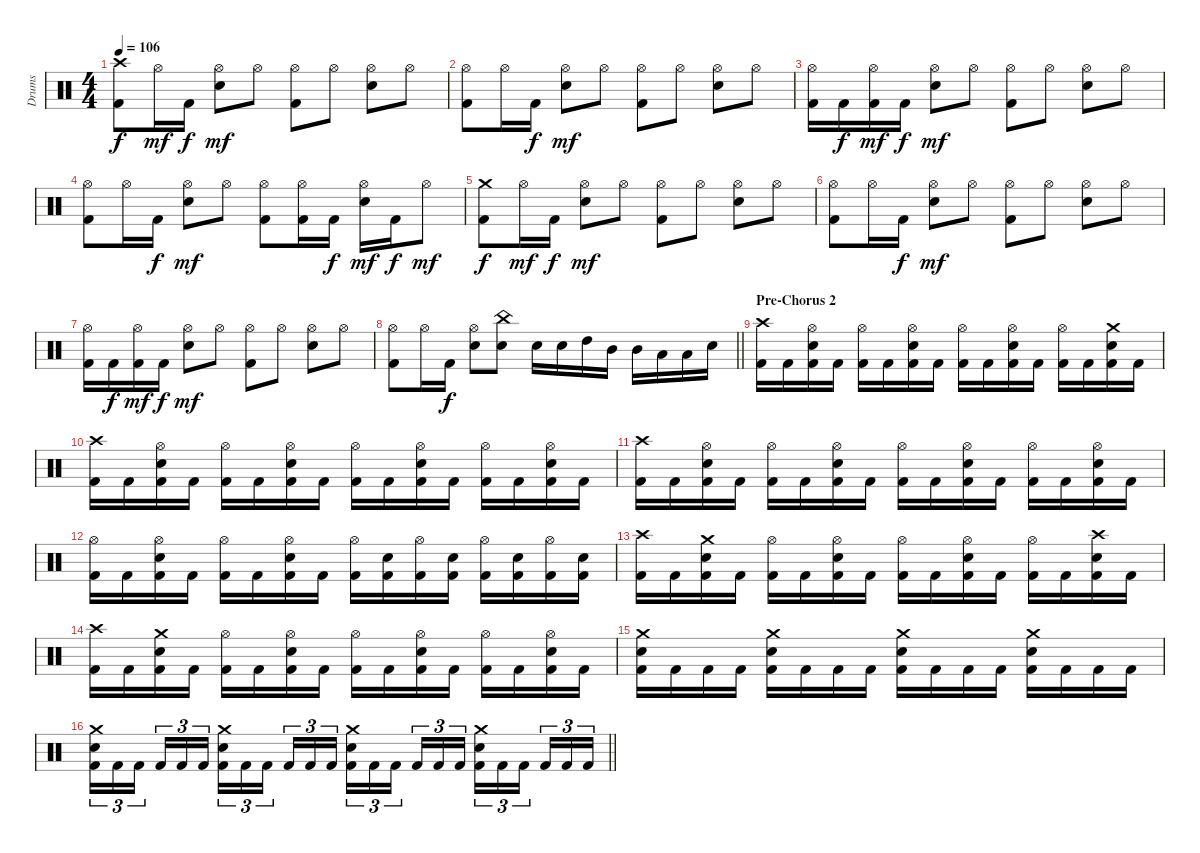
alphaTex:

\track ("Drums" "Drums") {instrument percussion}
\staff {score}
\articulation defaults
\ts (4 4)
\tempo 106
\clef neutral
\ks c
("Crash high (hit)" "Kick (hit) 2").8{dy f} "Hi-Hat (open)".16{dy mf} "Kick (hit) 2".16{dy f} ("Hi-Hat (open)" "Electric Snare (hit)").8{dy mf} "Hi-Hat (open)".8 ("Hi-Hat (open)" "Kick (hit) 2").8 "Hi-Hat (open)".8 ("Hi-Hat (open)" "Electric Snare (hit)").8 "Hi-Hat (open)".8 |
("Hi-Hat (open)" "Kick (hit) 2").8 "Hi-Hat (open)".16 "Kick (hit) 2".16{dy f} ("Hi-Hat (open)" "Electric Snare (hit)").8{dy mf} "Hi-Hat (open)".8 ("Hi-Hat (open)" "Kick (hit) 2").8 "Hi-Hat (open)".8 ("Hi-Hat (open)" "Electric Snare (hit)").8 "Hi-Hat (open)".8 |
("Hi-Hat (open)" "Kick (hit) 2").16 "Kick (hit) 2".16{dy f} ("Hi-Hat (open)" "Kick (hit) 2").16{dy mf} "Kick (hit) 2".16{dy f} ("Hi-Hat (open)" "Electric Snare (hit)").8{dy mf} "Hi-Hat (open)".8 ("Hi-Hat (open)" "Kick (hit) 2").8 "Hi-Hat (open)".8 ("Hi-Hat (open)" "Electric Snare (hit)").8 "Hi-Hat (open)".8 |
("Hi-Hat (open)" "Kick (hit) 2").8 "Hi-Hat (open)".16 "Kick (hit) 2".16{dy f} ("Hi-Hat (open)" "Electric Snare (hit)").8{dy mf} "Hi-Hat (open)".8 ("Hi-Hat (open)" "Kick (hit) 2").8 ("Hi-Hat (open)" "Kick (hit) 2").16 "Kick (hit) 2".16{dy f} ("Hi-Hat (open)" "Electric Snare (hit)").16{dy mf} "Kick (hit) 2".16{dy f} "Hi-Hat (open)".8{dy mf} |
("Crash medium (hit)" "Kick (hit) 2").8{dy f} "Hi-Hat (open)".16{dy mf} "Kick (hit) 2".16{dy f} ("Hi-Hat (open)" "Electric Snare (hit)").8{dy mf} "Hi-Hat (open)".8 ("Hi-Hat (open)" "Kick (hit) 2").8 "Hi-Hat (open)".8 ("Hi-Hat (open)" "Electric Snare (hit)").8 "Hi-Hat (open)".8 |
("Hi-Hat (open)" "Kick (hit) 2").8 "Hi-Hat (open)".16 "Kick (hit) 2".16{dy f} ("Hi-Hat (open)" "Electric Snare (hit)").8{dy mf} "Hi-Hat (open)".8 ("Hi-Hat (open)" "Kick (hit) 2").8 "Hi-Hat (open)".8 ("Hi-Hat (open)" "Electric Snare (hit)").8 "Hi-Hat (open)".8 |
("Hi-Hat (open)" "Kick (hit) 2").16 "Kick (hit) 2".16{dy f} ("Hi-Hat (open)" "Kick (hit) 2").16{dy mf} "Kick (hit) 2".16{dy f} ("Hi-Hat (open)" "Electric Snare (hit)").8{dy mf} "Hi-Hat (open)".8 ("Hi-Hat (open)" "Kick (hit) 2").8 "Hi-Hat (open)".8 ("Hi-Hat (open)" "Electric Snare (hit)").8 "Hi-Hat (open)".8 |
\barLineRight lightlight
("Hi-Hat (open)" "Kick (hit) 2").8 "Hi-Hat (open)".16 "Kick (hit) 2".16{dy f} ("Hi-Hat (open)" "Electric Snare (hit)").8 ("China (hit)" "Electric Snare (hit)").8 "Electric Snare (hit)".16 "Electric Snare (hit)".16 "High Tom (hit)".16 "Mid Tom (hit)".16 "Mid Tom (hit)".16 "Low Tom (hit)".16 "Low Tom (hit)".16 "Electric Snare (hit)".16 |
\section ("" "Pre-Chorus 2")
("Crash high (hit)" "Kick (hit) 2").16 "Kick (hit) 2".16 ("Hi-Hat (open)" "Electric Snare (hit)" "Kick (hit) 2").16 "Kick (hit) 2".16 ("Hi-Hat (open)" "Kick (hit) 2").16 "Kick (hit) 2".16 ("Hi-Hat (open)" "Electric Snare (hit)" "Kick (hit) 2").16 "Kick (hit) 2".16 ("Hi-Hat (open)" "Kick (hit) 2").16 "Kick (hit) 2".16 ("Hi-Hat (open)" "Electric Snare (hit)" "Kick (hit) 2").16 "Kick (hit) 2".16 ("Hi-Hat (open)" "Kick (hit) 2").16 "Kick (hit) 2".16 ("Crash medium (hit)" "Electric Snare (hit)" "Kick (hit) 2").16 "Kick (hit) 2".16 |
("Crash high (hit)" "Kick (hit) 2").16 "Kick (hit) 2".16 ("Hi-Hat (open)" "Electric Snare (hit)" "Kick (hit) 2").16 "Kick (hit) 2".16 ("Hi-Hat (open)" "Kick (hit) 2").16 "Kick (hit) 2".16 ("Hi-Hat (open)" "Electric Snare (hit)" "Kick (hit) 2").16 "Kick (hit) 2".16 ("Hi-Hat (open)" "Kick (hit) 2").16 "Kick (hit) 2".16 ("Hi-Hat (open)" "Electric Snare (hit)" "Kick (hit) 2").16 "Kick (hit) 2".16 ("Hi-Hat (open)" "Kick (hit) 2").16 "Kick (hit) 2".16 ("Hi-Hat (open)" "Electric Snare (hit)" "Kick (hit) 2").16 "Kick (hit) 2".16 |
("Crash high (hit)" "Kick (hit) 2").16 "Kick (hit) 2".16 ("Hi-Hat (open)" "Electric Snare (hit)" "Kick (hit) 2").16 "Kick (hit) 2".16 ("Hi-Hat (open)" "Kick (hit) 2").16 "Kick (hit) 2".16 ("Hi-Hat (open)" "Electric Snare (hit)" "Kick (hit) 2").16 "Kick (hit) 2".16 ("Hi-Hat (open)" "Kick (hit) 2").16 "Kick (hit) 2".16 ("Hi-Hat (open)" "Electric Snare (hit)" "Kick (hit) 2").16 "Kick (hit) 2".16 ("Hi-Hat (open)" "Kick (hit) 2").16 "Kick (hit) 2".16 ("Hi-Hat (open)" "Electric Snare (hit)" "Kick (hit) 2").16 "Kick (hit) 2".16 |
("Hi-Hat (open)" "Kick (hit) 2").16 "Kick (hit) 2".16 ("Hi-Hat (open)" "Electric Snare (hit)" "Kick (hit) 2").16 "Kick (hit) 2".16 ("Hi-Hat (open)" "Kick (hit) 2").16 "Kick (hit) 2".16 ("Hi-Hat (open)" "Electric Snare (hit)" "Kick (hit) 2").16 "Kick (hit) 2".16 ("Hi-Hat (open)" "Kick (hit) 2").16 ("Electric Snare (hit)" "Kick (hit) 2").16 ("Hi-Hat (open)" "Kick (hit) 2").16 ("Electric Snare (hit)" "Kick (hit) 2").16 ("Hi-Hat (open)" "Kick (hit) 2").16 ("Electric Snare (hit)" "Kick (hit) 2").16 ("Hi-Hat (open)" "Kick (hit) 2").16 ("Electric Snare (hit)" "Kick (hit) 2").16 |
("Crash high (hit)" "Kick (hit) 2").16 "Kick (hit) 2".16 ("Crash medium (hit)" "Electric Snare (hit)" "Kick (hit) 2").16 "Kick (hit) 2".16 ("Hi-Hat (open)" "Kick (hit) 2").16 "Kick (hit) 2".16 ("Hi-Hat (open)" "Electric Snare (hit)" "Kick (hit) 2").16 "Kick (hit) 2".16 ("Hi-Hat (open)" "Kick (hit) 2").16 "Kick (hit) 2".16 ("Hi-Hat (open)" "Electric Snare (hit)" "Kick (hit) 2").16 "Kick (hit) 2".16 ("Hi-Hat (open)" "Kick (hit) 2").16 "Kick (hit) 2".16 ("Crash high (hit)" "Electric Snare (hit)" "Kick (hit) 2").16 "Kick (hit) 2".16 |
("Crash high (hit)" "Kick (hit) 2").16 "Kick (hit) 2".16 ("Crash medium (hit)" "Electric Snare (hit)" "Kick (hit) 2").16 "Kick (hit) 2".16 ("Hi-Hat (open)" "Kick (hit) 2").16 "Kick (hit) 2".16 ("Hi-Hat (open)" "Electric Snare (hit)" "Kick (hit) 2").16 "Kick (hit) 2".16 ("Hi-Hat (open)" "Kick (hit) 2").16 "Kick (hit) 2".16 ("Hi-Hat (open)" "Electric Snare (hit)" "Kick (hit) 2").16 "Kick (hit) 2".16 ("Hi-Hat (open)" "Kick (hit) 2").16 "Kick (hit) 2".16 ("Hi-Hat (open)" "Electric Snare (hit)" "Kick (hit) 2").16 "Kick (hit) 2".16 |
("Crash medium (hit)" "Electric Snare (hit)" "Kick (hit) 2").16 "Kick (hit) 2".16 "Kick (hit) 2".16 "Kick (hit) 2".16 ("Crash medium (hit)" "Electric Snare (hit)" "Kick (hit) 2").16 "Kick (hit) 2".16 "Kick (hit) 2".16 "Kick (hit) 2".16 ("Crash medium (hit)" "Electric Snare (hit)" "Kick (hit) 2").16 "Kick (hit) 2".16 "Kick (hit) 2".16 "Kick (hit) 2".16 ("Crash medium (hit)" "Electric Snare (hit)" "Kick (hit) 2").16 "Kick (hit) 2".16 "Kick (hit) 2".16 "Kick (hit) 2".16 |
\barLineRight lightlight
("Crash medium (hit)" "Electric Snare (hit)" "Kick (hit) 2").16{tu (3 2)} "Kick (hit) 2".16{tu (3 2)} "Kick (hit) 2".16{tu (3 2) beam splitsecondary} "Kick (hit) 2".16{tu (3 2)} "Kick (hit) 2".16{tu (3 2)} "Kick (hit) 2".16{tu (3 2)} ("Crash medium (hit)" "Electric Snare (hit)" "Kick (hit) 2").16{tu (3 2)} "Kick (hit) 2".16{tu (3 2)} "Kick (hit) 2".16{tu (3 2) beam splitsecondary} "Kick (hit) 2".16{tu (3 2)} "Kick (hit) 2".16{tu (3 2)} "Kick (hit) 2".16{tu (3 2)} ("Crash medium (hit)" "Electric Snare (hit)" "Kick (hit) 2").16{tu (3 2)} "Kick (hit) 2".16{tu (3 2)} "Kick (hit) 2".16{tu (3 2) beam splitsecondary} "Kick (hit) 2".16{tu (3 2)} "Kick (hit) 2".16{tu (3 2)} "Kick (hit) 2".16{tu (3 2)} ("Crash medium (hit)" "Electric Snare (hit)" "Kick (hit) 2").16{tu (3 2)} "Kick (hit) 2".16{tu (3 2)} "Kick (hit) 2".16{tu (3 2) beam splitsecondary} "Kick (hit) 2".16{tu (3 2)} "Kick (hit) 2".16{tu (3 2)} "Kick (hit) 2".16{tu (3 2)}
